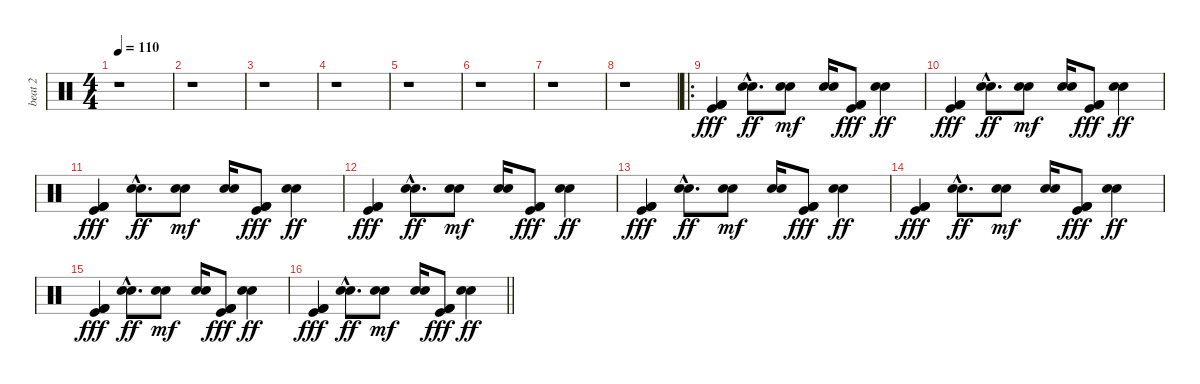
\track ("beat 2" "beat 2") {instrument percussion}
\staff {score}
\articulation defaults
\ts (4 4)
\tempo 110
\clef neutral
\ks c
r.1{dy fff} |
r.1 |
r.1 |
r.1 |
r.1 |
r.1 |
r.1 |
r.1 |
\ro
("Kick (hit)" "Kick (hit) 2" "Kick (hit) 2").4 ("Snare (hit) 2"{hac} "Electric Snare (hit)"{hac}).8{d dy ff} ("Snare (hit) 2" "Electric Snare (hit)").8{dy mf} ("Snare (hit) 2" "Electric Snare (hit)").16 ("Kick (hit)" "Kick (hit) 2" "Kick (hit) 2").8{dy fff} ("Snare (hit) 2" "Electric Snare (hit)").4{dy ff} |
("Kick (hit)" "Kick (hit) 2" "Kick (hit) 2").4{dy fff} ("Snare (hit) 2"{hac} "Electric Snare (hit)"{hac}).8{d dy ff} ("Snare (hit) 2" "Electric Snare (hit)").8{dy mf} ("Snare (hit) 2" "Electric Snare (hit)").16 ("Kick (hit)" "Kick (hit) 2" "Kick (hit) 2").8{dy fff} ("Snare (hit) 2" "Electric Snare (hit)").4{dy ff} |
("Kick (hit)" "Kick (hit) 2" "Kick (hit) 2").4{dy fff} ("Snare (hit) 2"{hac} "Electric Snare (hit)"{hac}).8{d dy ff} ("Snare (hit) 2" "Electric Snare (hit)").8{dy mf} ("Snare (hit) 2" "Electric Snare (hit)").16 ("Kick (hit)" "Kick (hit) 2" "Kick (hit) 2").8{dy fff} ("Snare (hit) 2" "Electric Snare (hit)").4{dy ff} |
("Kick (hit)" "Kick (hit) 2" "Kick (hit) 2").4{dy fff} ("Snare (hit) 2"{hac} "Electric Snare (hit)"{hac}).8{d dy ff} ("Snare (hit) 2" "Electric Snare (hit)").8{dy mf} ("Snare (hit) 2" "Electric Snare (hit)").16 ("Kick (hit)" "Kick (hit) 2" "Kick (hit) 2").8{dy fff} ("Snare (hit) 2" "Electric Snare (hit)").4{dy ff} |
("Kick (hit)" "Kick (hit) 2" "Kick (hit) 2").4{dy fff} ("Snare (hit) 2"{hac} "Electric Snare (hit)"{hac}).8{d dy ff} ("Snare (hit) 2" "Electric Snare (hit)").8{dy mf} ("Snare (hit) 2" "Electric Snare (hit)").16 ("Kick (hit)" "Kick (hit) 2" "Kick (hit) 2").8{dy fff} ("Snare (hit) 2" "Electric Snare (hit)").4{dy ff} |
("Kick (hit)" "Kick (hit) 2" "Kick (hit) 2").4{dy fff} ("Snare (hit) 2"{hac} "Electric Snare (hit)"{hac}).8{d dy ff} ("Snare (hit) 2" "Electric Snare (hit)").8{dy mf} ("Snare (hit) 2" "Electric Snare (hit)").16 ("Kick (hit)" "Kick (hit) 2" "Kick (hit) 2").8{dy fff} ("Snare (hit) 2" "Electric Snare (hit)").4{dy ff} |
("Kick (hit)" "Kick (hit) 2" "Kick (hit) 2").4{dy fff} ("Snare (hit) 2"{hac} "Electric Snare (hit)"{hac}).8{d dy ff} ("Snare (hit) 2" "Electric Snare (hit)").8{dy mf} ("Snare (hit) 2" "Electric Snare (hit)").16 ("Kick (hit)" "Kick (hit) 2" "Kick (hit) 2").8{dy fff} ("Snare (hit) 2" "Electric Snare (hit)").4{dy ff} |
\barLineRight lightlight
("Kick (hit)" "Kick (hit) 2" "Kick (hit) 2").4{dy fff} ("Snare (hit) 2"{hac} "Electric Snare (hit)"{hac}).8{d dy ff} ("Snare (hit) 2" "Electric Snare (hit)").8{dy mf} ("Snare (hit) 2" "Electric Snare (hit)").16 ("Kick (hit)" "Kick (hit) 2" "Kick (hit) 2").8{dy fff} ("Snare (hit) 2" "Electric Snare (hit)").4{dy ff}
